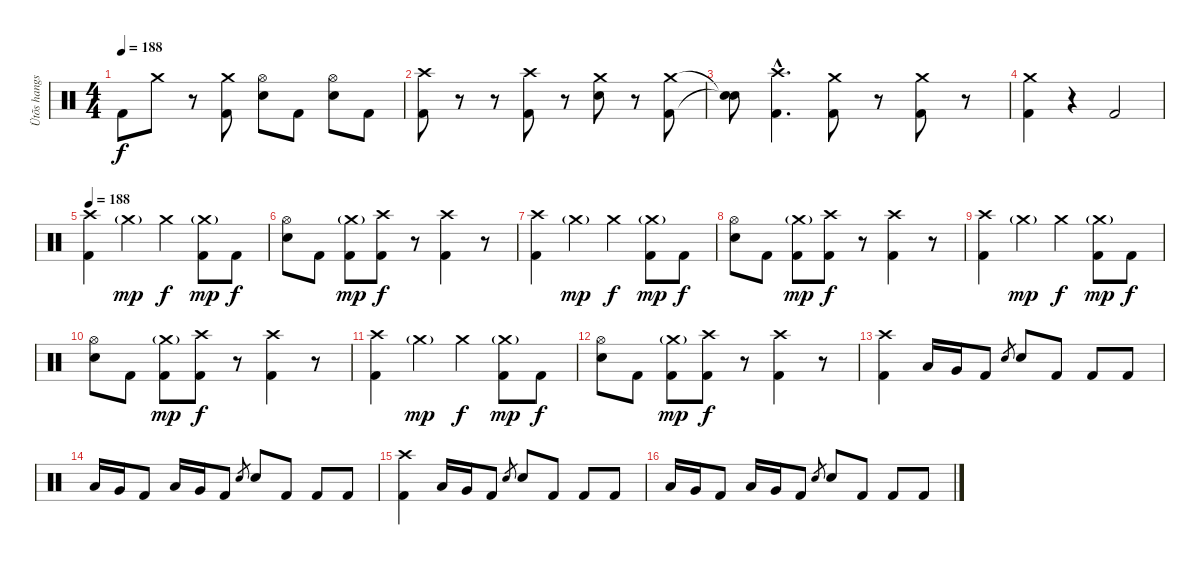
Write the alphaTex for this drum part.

\track ("Ütõs hangszer" "Ütõs hangs") {instrument percussion}
\staff {score}
\articulation defaults
\ts (4 4)
\tempo 188
\clef neutral
\ks c "Kick (hit) 2".8{dy f} "Crash medium (hit)".8
r.8 ("Crash medium (hit)" "Kick (hit) 2").8 ("Hi-Hat (open)" "Electric Snare (hit)").8 "Kick (hit) 2".8 ("Hi-Hat (open)" "Electric Snare (hit)").8 "Kick (hit) 2".8 |
("Crash high (hit)" "Kick (hit) 2").8 r.8 r.8 ("Crash high (hit)" "Kick (hit) 2").8 r.8 ("Crash medium (hit)" "Electric Snare (hit)").8 r.8 ("Crash medium (hit)" "Kick (hit) 2").8 |
("Snare (hit)"{t} "Snare (hit)"{t}).8 ("Crash high (hit)"{hac} "Kick (hit) 2"{hac}).4{d} ("Crash medium (hit)" "Kick (hit) 2").8 r.8 ("Crash medium (hit)" "Kick (hit) 2").8 r.8 |
("Crash medium (hit)" "Kick (hit) 2").4 r.4 "Kick (hit) 2".2 |
\tempo 188
("Crash high (hit)" "Kick (hit) 2").4 "Crash medium (hit)"{g}.4{dy mp} "Crash medium (hit)".4{dy f} ("Crash medium (hit)"{g} "Kick (hit) 2").8{dy mp} "Kick (hit) 2".8{dy f} |
("Hi-Hat (open)" "Electric Snare (hit)").8 "Kick (hit) 2".8 ("Crash medium (hit)"{g} "Kick (hit) 2").8{dy mp} ("Crash high (hit)" "Kick (hit) 2").8{dy f} r.8 ("Crash high (hit)" "Kick (hit) 2").4 r.8 |
("Crash high (hit)" "Kick (hit) 2").4 "Crash medium (hit)"{g}.4{dy mp} "Crash medium (hit)".4{dy f} ("Crash medium (hit)"{g} "Kick (hit) 2").8{dy mp} "Kick (hit) 2".8{dy f} |
("Hi-Hat (open)" "Electric Snare (hit)").8 "Kick (hit) 2".8 ("Crash medium (hit)"{g} "Kick (hit) 2").8{dy mp} ("Crash high (hit)" "Kick (hit) 2").8{dy f} r.8 ("Crash high (hit)" "Kick (hit) 2").4 r.8 |
("Crash high (hit)" "Kick (hit) 2").4 "Crash medium (hit)"{g}.4{dy mp} "Crash medium (hit)".4{dy f} ("Crash medium (hit)"{g} "Kick (hit) 2").8{dy mp} "Kick (hit) 2".8{dy f} |
("Hi-Hat (open)" "Electric Snare (hit)").8 "Kick (hit) 2".8 ("Crash medium (hit)"{g} "Kick (hit) 2").8{dy mp} ("Crash high (hit)" "Kick (hit) 2").8{dy f} r.8 ("Crash high (hit)" "Kick (hit) 2").4 r.8 |
("Crash high (hit)" "Kick (hit) 2").4 "Crash medium (hit)"{g}.4{dy mp} "Crash medium (hit)".4{dy f} ("Crash medium (hit)"{g} "Kick (hit) 2").8{dy mp} "Kick (hit) 2".8{dy f} |
("Hi-Hat (open)" "Electric Snare (hit)").8 "Kick (hit) 2".8 ("Crash medium (hit)"{g} "Kick (hit) 2").8{dy mp} ("Crash high (hit)" "Kick (hit) 2").8{dy f} r.8 ("Crash high (hit)" "Kick (hit) 2").4 r.8 |
("Crash high (hit)" "Kick (hit) 2").4 "Low Tom (hit)".16 "Very Low Tom (hit)".16 "Kick (hit) 2".8 "Electric Snare (hit)".8{gr} "Electric Snare (hit)".8 "Kick (hit) 2".8 "Kick (hit) 2".8 "Kick (hit) 2".8 |
"Low Tom (hit)".16 "Very Low Tom (hit)".16 "Kick (hit) 2".8 "Low Tom (hit)".16 "Very Low Tom (hit)".16 "Kick (hit) 2".8 "Electric Snare (hit)".8{gr} "Electric Snare (hit)".8 "Kick (hit) 2".8 "Kick (hit) 2".8 "Kick (hit) 2".8 |
("Crash high (hit)" "Kick (hit) 2").4 "Low Tom (hit)".16 "Very Low Tom (hit)".16 "Kick (hit) 2".8 "Electric Snare (hit)".8{gr} "Electric Snare (hit)".8 "Kick (hit) 2".8 "Kick (hit) 2".8 "Kick (hit) 2".8 |
"Low Tom (hit)".16 "Very Low Tom (hit)".16 "Kick (hit) 2".8 "Low Tom (hit)".16 "Very Low Tom (hit)".16 "Kick (hit) 2".8 "Electric Snare (hit)".8{gr} "Electric Snare (hit)".8 "Kick (hit) 2".8 "Kick (hit) 2".8 "Kick (hit) 2".8
